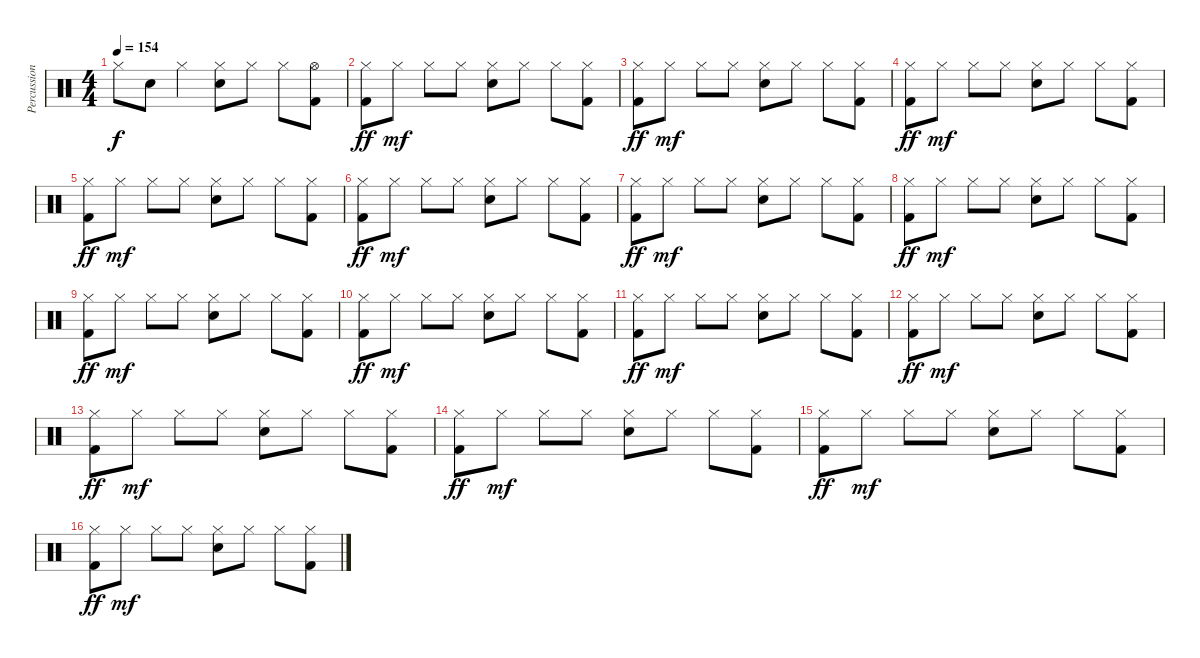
\track ("Percussions" "Percussion") {instrument percussion}
\staff {score}
\articulation defaults
\ts (4 4)
\tempo 154
\clef neutral
\ks c "Hi-Hat (closed)".8{dy f} "Electric Snare (hit)".8 "Hi-Hat (closed)".4
("Hi-Hat (closed)" "Electric Snare (hit)").8 "Hi-Hat (closed)".8 "Hi-Hat (closed)".8 ("Hi-Hat (open)" "Kick (hit) 2").8 |
("Hi-Hat (closed)" "Kick (hit) 2").8{dy ff} "Hi-Hat (closed)".8{dy mf} "Hi-Hat (closed)".8 "Hi-Hat (closed)".8 ("Hi-Hat (closed)" "Electric Snare (hit)").8 "Hi-Hat (closed)".8 "Hi-Hat (closed)".8 ("Hi-Hat (closed)" "Kick (hit) 2").8 |
("Hi-Hat (closed)" "Kick (hit) 2").8{dy ff} "Hi-Hat (closed)".8{dy mf} "Hi-Hat (closed)".8 "Hi-Hat (closed)".8 ("Hi-Hat (closed)" "Electric Snare (hit)").8 "Hi-Hat (closed)".8 "Hi-Hat (closed)".8 ("Hi-Hat (closed)" "Kick (hit) 2").8 |
("Hi-Hat (closed)" "Kick (hit) 2").8{dy ff} "Hi-Hat (closed)".8{dy mf} "Hi-Hat (closed)".8 "Hi-Hat (closed)".8 ("Hi-Hat (closed)" "Electric Snare (hit)").8 "Hi-Hat (closed)".8 "Hi-Hat (closed)".8 ("Hi-Hat (closed)" "Kick (hit) 2").8 |
("Hi-Hat (closed)" "Kick (hit) 2").8{dy ff} "Hi-Hat (closed)".8{dy mf} "Hi-Hat (closed)".8 "Hi-Hat (closed)".8 ("Hi-Hat (closed)" "Electric Snare (hit)").8 "Hi-Hat (closed)".8 "Hi-Hat (closed)".8 ("Hi-Hat (closed)" "Kick (hit) 2").8 |
("Hi-Hat (closed)" "Kick (hit) 2").8{dy ff} "Hi-Hat (closed)".8{dy mf} "Hi-Hat (closed)".8 "Hi-Hat (closed)".8 ("Hi-Hat (closed)" "Electric Snare (hit)").8 "Hi-Hat (closed)".8 "Hi-Hat (closed)".8 ("Hi-Hat (closed)" "Kick (hit) 2").8 |
("Hi-Hat (closed)" "Kick (hit) 2").8{dy ff} "Hi-Hat (closed)".8{dy mf} "Hi-Hat (closed)".8 "Hi-Hat (closed)".8 ("Hi-Hat (closed)" "Electric Snare (hit)").8 "Hi-Hat (closed)".8 "Hi-Hat (closed)".8 ("Hi-Hat (closed)" "Kick (hit) 2").8 |
("Hi-Hat (closed)" "Kick (hit) 2").8{dy ff} "Hi-Hat (closed)".8{dy mf} "Hi-Hat (closed)".8 "Hi-Hat (closed)".8 ("Hi-Hat (closed)" "Electric Snare (hit)").8 "Hi-Hat (closed)".8 "Hi-Hat (closed)".8 ("Hi-Hat (closed)" "Kick (hit) 2").8 |
("Hi-Hat (closed)" "Kick (hit) 2").8{dy ff} "Hi-Hat (closed)".8{dy mf} "Hi-Hat (closed)".8 "Hi-Hat (closed)".8 ("Hi-Hat (closed)" "Electric Snare (hit)").8 "Hi-Hat (closed)".8 "Hi-Hat (closed)".8 ("Hi-Hat (closed)" "Kick (hit) 2").8 |
("Hi-Hat (closed)" "Kick (hit) 2").8{dy ff} "Hi-Hat (closed)".8{dy mf} "Hi-Hat (closed)".8 "Hi-Hat (closed)".8 ("Hi-Hat (closed)" "Electric Snare (hit)").8 "Hi-Hat (closed)".8 "Hi-Hat (closed)".8 ("Hi-Hat (closed)" "Kick (hit) 2").8 |
("Hi-Hat (closed)" "Kick (hit) 2").8{dy ff} "Hi-Hat (closed)".8{dy mf} "Hi-Hat (closed)".8 "Hi-Hat (closed)".8 ("Hi-Hat (closed)" "Electric Snare (hit)").8 "Hi-Hat (closed)".8 "Hi-Hat (closed)".8 ("Hi-Hat (closed)" "Kick (hit) 2").8 |
("Hi-Hat (closed)" "Kick (hit) 2").8{dy ff} "Hi-Hat (closed)".8{dy mf} "Hi-Hat (closed)".8 "Hi-Hat (closed)".8 ("Hi-Hat (closed)" "Electric Snare (hit)").8 "Hi-Hat (closed)".8 "Hi-Hat (closed)".8 ("Hi-Hat (closed)" "Kick (hit) 2").8 |
("Hi-Hat (closed)" "Kick (hit) 2").8{dy ff} "Hi-Hat (closed)".8{dy mf} "Hi-Hat (closed)".8 "Hi-Hat (closed)".8 ("Hi-Hat (closed)" "Electric Snare (hit)").8 "Hi-Hat (closed)".8 "Hi-Hat (closed)".8 ("Hi-Hat (closed)" "Kick (hit) 2").8 |
("Hi-Hat (closed)" "Kick (hit) 2").8{dy ff} "Hi-Hat (closed)".8{dy mf} "Hi-Hat (closed)".8 "Hi-Hat (closed)".8 ("Hi-Hat (closed)" "Electric Snare (hit)").8 "Hi-Hat (closed)".8 "Hi-Hat (closed)".8 ("Hi-Hat (closed)" "Kick (hit) 2").8 |
("Hi-Hat (closed)" "Kick (hit) 2").8{dy ff} "Hi-Hat (closed)".8{dy mf} "Hi-Hat (closed)".8 "Hi-Hat (closed)".8 ("Hi-Hat (closed)" "Electric Snare (hit)").8 "Hi-Hat (closed)".8 "Hi-Hat (closed)".8 ("Hi-Hat (closed)" "Kick (hit) 2").8 |
("Hi-Hat (closed)" "Kick (hit) 2").8{dy ff} "Hi-Hat (closed)".8{dy mf} "Hi-Hat (closed)".8 "Hi-Hat (closed)".8 ("Hi-Hat (closed)" "Electric Snare (hit)").8 "Hi-Hat (closed)".8 "Hi-Hat (closed)".8 ("Hi-Hat (closed)" "Kick (hit) 2").8
